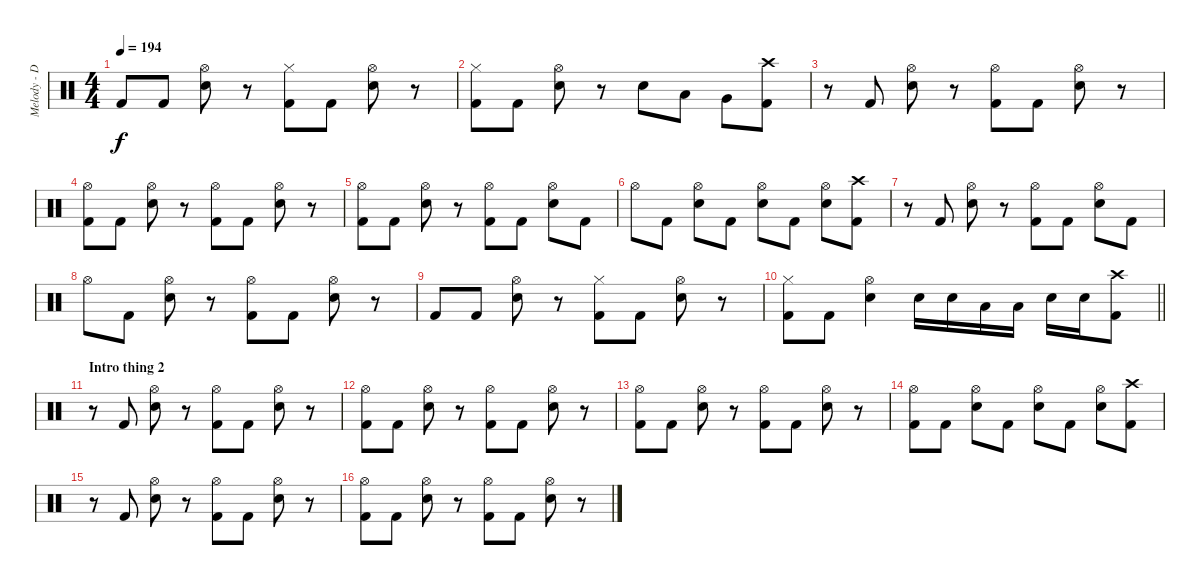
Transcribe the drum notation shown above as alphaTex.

\track ("Melody - Drums" "Melody - D") {instrument percussion}
\staff {score}
\articulation defaults
\ts (4 4)
\tempo 194
\clef neutral
\ks c "Kick (hit) 2".8{dy f} "Kick (hit) 2".8
("Hi-Hat (open)" "Electric Snare (hit)").8 r.8 ("Hi-Hat (closed)" "Kick (hit) 2").8 "Kick (hit) 2".8 ("Hi-Hat (open)" "Electric Snare (hit)").8 r.8 |
("Hi-Hat (closed)" "Kick (hit) 2").8 "Kick (hit) 2".8 ("Hi-Hat (open)" "Electric Snare (hit)").8 r.8 "Electric Snare (hit)".8 "Low Tom (hit)".8 "Very Low Tom (hit)".8 ("Crash high (hit)" "Kick (hit) 2").8 |
r.8 "Kick (hit) 2".8 ("Hi-Hat (open)" "Electric Snare (hit)").8 r.8 ("Hi-Hat (open)" "Kick (hit) 2").8 "Kick (hit) 2".8 ("Hi-Hat (open)" "Electric Snare (hit)").8 r.8 |
("Hi-Hat (open)" "Kick (hit) 2").8 "Kick (hit) 2".8 ("Hi-Hat (open)" "Electric Snare (hit)").8 r.8 ("Hi-Hat (open)" "Kick (hit) 2").8 "Kick (hit) 2".8 ("Hi-Hat (open)" "Electric Snare (hit)").8 r.8 |
("Hi-Hat (open)" "Kick (hit) 2").8 "Kick (hit) 2".8 ("Hi-Hat (open)" "Electric Snare (hit)").8 r.8 ("Hi-Hat (open)" "Kick (hit) 2").8 "Kick (hit) 2".8 ("Hi-Hat (open)" "Electric Snare (hit)").8 "Kick (hit) 2".8 |
"Hi-Hat (open)".8 "Kick (hit) 2".8 ("Hi-Hat (open)" "Electric Snare (hit)").8 "Kick (hit) 2".8 ("Hi-Hat (open)" "Electric Snare (hit)").8 "Kick (hit) 2".8 ("Hi-Hat (open)" "Electric Snare (hit)").8 ("Crash high (hit)" "Kick (hit) 2").8 |
r.8 "Kick (hit) 2".8 ("Hi-Hat (open)" "Electric Snare (hit)").8 r.8 ("Hi-Hat (open)" "Kick (hit) 2").8 "Kick (hit) 2".8 ("Hi-Hat (open)" "Electric Snare (hit)").8 "Kick (hit) 2".8 |
"Hi-Hat (open)".8 "Kick (hit) 2".8 ("Hi-Hat (open)" "Electric Snare (hit)").8 r.8 ("Hi-Hat (open)" "Kick (hit) 2").8 "Kick (hit) 2".8 ("Hi-Hat (open)" "Electric Snare (hit)").8 r.8 |
"Kick (hit) 2".8 "Kick (hit) 2".8 ("Hi-Hat (open)" "Electric Snare (hit)").8 r.8 ("Hi-Hat (closed)" "Kick (hit) 2").8 "Kick (hit) 2".8 ("Hi-Hat (open)" "Electric Snare (hit)").8 r.8 |
\barLineRight lightlight
("Hi-Hat (closed)" "Kick (hit) 2").8 "Kick (hit) 2".8 ("Hi-Hat (open)" "Electric Snare (hit)").4 "Electric Snare (hit)".16 "Electric Snare (hit)".16 "Low Tom (hit)".16 "Low Tom (hit)".16 "Electric Snare (hit)".16 "Electric Snare (hit)".16 ("Crash high (hit)" "Kick (hit) 2").8 |
\section ("" "Intro thing 2")
r.8 "Kick (hit) 2".8 ("Hi-Hat (open)" "Electric Snare (hit)").8 r.8 ("Hi-Hat (open)" "Kick (hit) 2").8 "Kick (hit) 2".8 ("Hi-Hat (open)" "Electric Snare (hit)").8 r.8 |
("Hi-Hat (open)" "Kick (hit) 2").8 "Kick (hit) 2".8 ("Hi-Hat (open)" "Electric Snare (hit)").8 r.8 ("Hi-Hat (open)" "Kick (hit) 2").8 "Kick (hit) 2".8 ("Hi-Hat (open)" "Electric Snare (hit)").8 r.8 |
("Hi-Hat (open)" "Kick (hit) 2").8 "Kick (hit) 2".8 ("Hi-Hat (open)" "Electric Snare (hit)").8 r.8 ("Hi-Hat (open)" "Kick (hit) 2").8 "Kick (hit) 2".8 ("Hi-Hat (open)" "Electric Snare (hit)").8 r.8 |
("Hi-Hat (open)" "Kick (hit) 2").8 "Kick (hit) 2".8 ("Hi-Hat (open)" "Electric Snare (hit)").8 "Kick (hit) 2".8 ("Hi-Hat (open)" "Electric Snare (hit)").8 "Kick (hit) 2".8 ("Hi-Hat (open)" "Electric Snare (hit)").8 ("Crash high (hit)" "Kick (hit) 2").8 |
r.8 "Kick (hit) 2".8 ("Hi-Hat (open)" "Electric Snare (hit)").8 r.8 ("Hi-Hat (open)" "Kick (hit) 2").8 "Kick (hit) 2".8 ("Hi-Hat (open)" "Electric Snare (hit)").8 r.8 |
("Hi-Hat (open)" "Kick (hit) 2").8 "Kick (hit) 2".8 ("Hi-Hat (open)" "Electric Snare (hit)").8 r.8 ("Hi-Hat (open)" "Kick (hit) 2").8 "Kick (hit) 2".8 ("Hi-Hat (open)" "Electric Snare (hit)").8 r.8
